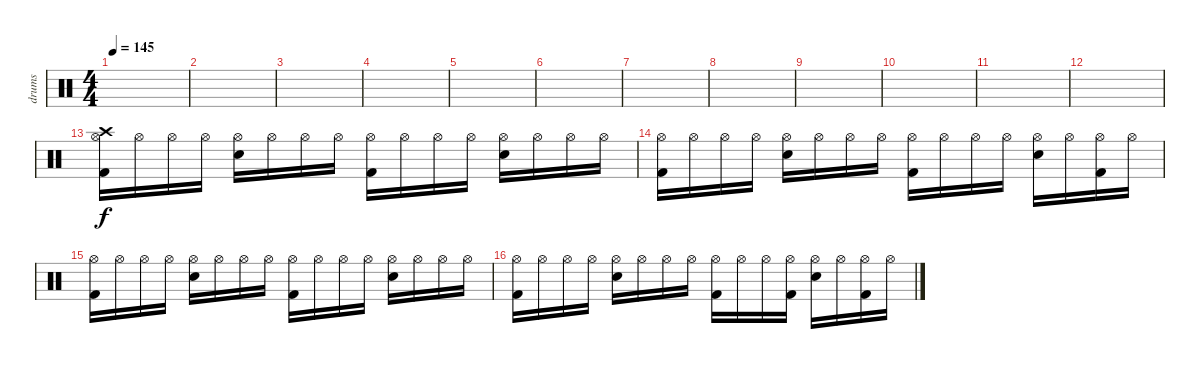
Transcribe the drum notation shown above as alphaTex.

\track ("drums" "drums") {instrument percussion}
\staff {score}
\articulation defaults
\ts (4 4)
\tempo 145
\clef neutral
\ks c
|
|
|
|
|
|
|
|
|
|
|
|
("Kick (hit) 2" "Crash high (hit)" "Hi-Hat (open)").16 "Hi-Hat (open)".16 "Hi-Hat (open)".16 "Hi-Hat (open)".16 ("Snare (hit) 2" "Hi-Hat (open)").16 "Hi-Hat (open)".16 "Hi-Hat (open)".16 "Hi-Hat (open)".16 ("Kick (hit) 2" "Hi-Hat (open)").16 "Hi-Hat (open)".16 "Hi-Hat (open)".16 "Hi-Hat (open)".16 ("Snare (hit) 2" "Hi-Hat (open)").16 "Hi-Hat (open)".16 "Hi-Hat (open)".16 "Hi-Hat (open)".16 |
("Kick (hit) 2" "Hi-Hat (open)").16 "Hi-Hat (open)".16 "Hi-Hat (open)".16 "Hi-Hat (open)".16 ("Snare (hit) 2" "Hi-Hat (open)").16 "Hi-Hat (open)".16 "Hi-Hat (open)".16 "Hi-Hat (open)".16 ("Kick (hit) 2" "Hi-Hat (open)").16 "Hi-Hat (open)".16 "Hi-Hat (open)".16 "Hi-Hat (open)".16 ("Snare (hit) 2" "Hi-Hat (open)").16 "Hi-Hat (open)".16 ("Kick (hit) 2" "Hi-Hat (open)").16 "Hi-Hat (open)".16 |
("Kick (hit) 2" "Hi-Hat (open)").16 "Hi-Hat (open)".16 "Hi-Hat (open)".16 "Hi-Hat (open)".16 ("Snare (hit) 2" "Hi-Hat (open)").16 "Hi-Hat (open)".16 "Hi-Hat (open)".16 "Hi-Hat (open)".16 ("Kick (hit) 2" "Hi-Hat (open)").16 "Hi-Hat (open)".16 "Hi-Hat (open)".16 "Hi-Hat (open)".16 ("Snare (hit) 2" "Hi-Hat (open)").16 "Hi-Hat (open)".16 "Hi-Hat (open)".16 "Hi-Hat (open)".16 |
("Kick (hit) 2" "Hi-Hat (open)").16 "Hi-Hat (open)".16 "Hi-Hat (open)".16 "Hi-Hat (open)".16 ("Snare (hit) 2" "Hi-Hat (open)").16 "Hi-Hat (open)".16 "Hi-Hat (open)".16 "Hi-Hat (open)".16 ("Kick (hit) 2" "Hi-Hat (open)").16 "Hi-Hat (open)".16 "Hi-Hat (open)".16 ("Kick (hit) 2" "Hi-Hat (open)").16 ("Snare (hit) 2" "Hi-Hat (open)").16 "Hi-Hat (open)".16 ("Kick (hit) 2" "Hi-Hat (open)").16 "Hi-Hat (open)".16
